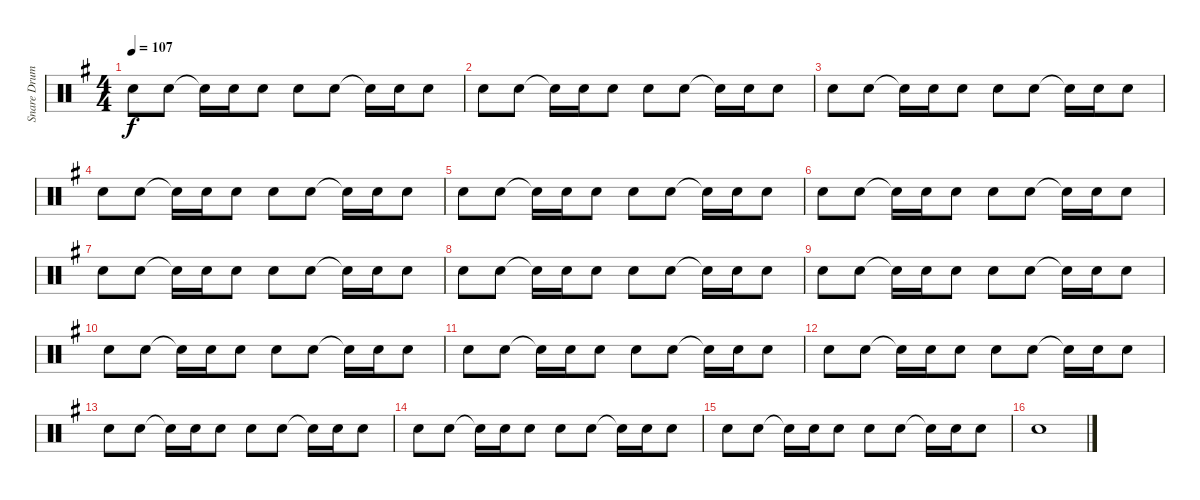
\track ("Snare Drum" "Snare Drum") {instrument percussion}
\staff {score}
\articulation defaults
\ts (4 4)
\tempo 107
\clef neutral
\ks g "Snare (hit) 2".8{dy f} "Snare (hit) 2".8 "Snare (hit) 2"{t}.16 "Snare (hit) 2".16 "Snare (hit) 2".8 "Snare (hit) 2".8 "Snare (hit) 2".8 "Snare (hit) 2"{t}.16 "Snare (hit) 2".16 "Snare (hit) 2".8
|
"Snare (hit) 2".8 "Snare (hit) 2".8 "Snare (hit) 2"{t}.16 "Snare (hit) 2".16 "Snare (hit) 2".8 "Snare (hit) 2".8 "Snare (hit) 2".8 "Snare (hit) 2"{t}.16 "Snare (hit) 2".16 "Snare (hit) 2".8 |
"Snare (hit) 2".8 "Snare (hit) 2".8 "Snare (hit) 2"{t}.16 "Snare (hit) 2".16 "Snare (hit) 2".8 "Snare (hit) 2".8 "Snare (hit) 2".8 "Snare (hit) 2"{t}.16 "Snare (hit) 2".16 "Snare (hit) 2".8 |
"Snare (hit) 2".8 "Snare (hit) 2".8 "Snare (hit) 2"{t}.16 "Snare (hit) 2".16 "Snare (hit) 2".8 "Snare (hit) 2".8 "Snare (hit) 2".8 "Snare (hit) 2"{t}.16 "Snare (hit) 2".16 "Snare (hit) 2".8 |
"Snare (hit) 2".8 "Snare (hit) 2".8 "Snare (hit) 2"{t}.16 "Snare (hit) 2".16 "Snare (hit) 2".8 "Snare (hit) 2".8 "Snare (hit) 2".8 "Snare (hit) 2"{t}.16 "Snare (hit) 2".16 "Snare (hit) 2".8 |
"Snare (hit) 2".8 "Snare (hit) 2".8 "Snare (hit) 2"{t}.16 "Snare (hit) 2".16 "Snare (hit) 2".8 "Snare (hit) 2".8 "Snare (hit) 2".8 "Snare (hit) 2"{t}.16 "Snare (hit) 2".16 "Snare (hit) 2".8 |
"Snare (hit) 2".8 "Snare (hit) 2".8 "Snare (hit) 2"{t}.16 "Snare (hit) 2".16 "Snare (hit) 2".8 "Snare (hit) 2".8 "Snare (hit) 2".8 "Snare (hit) 2"{t}.16 "Snare (hit) 2".16 "Snare (hit) 2".8 |
"Snare (hit) 2".8 "Snare (hit) 2".8 "Snare (hit) 2"{t}.16 "Snare (hit) 2".16 "Snare (hit) 2".8 "Snare (hit) 2".8 "Snare (hit) 2".8 "Snare (hit) 2"{t}.16 "Snare (hit) 2".16 "Snare (hit) 2".8 |
"Snare (hit) 2".8 "Snare (hit) 2".8 "Snare (hit) 2"{t}.16 "Snare (hit) 2".16 "Snare (hit) 2".8 "Snare (hit) 2".8 "Snare (hit) 2".8 "Snare (hit) 2"{t}.16 "Snare (hit) 2".16 "Snare (hit) 2".8 |
"Snare (hit) 2".8 "Snare (hit) 2".8 "Snare (hit) 2"{t}.16 "Snare (hit) 2".16 "Snare (hit) 2".8 "Snare (hit) 2".8 "Snare (hit) 2".8 "Snare (hit) 2"{t}.16 "Snare (hit) 2".16 "Snare (hit) 2".8 |
"Snare (hit) 2".8 "Snare (hit) 2".8 "Snare (hit) 2"{t}.16 "Snare (hit) 2".16 "Snare (hit) 2".8 "Snare (hit) 2".8 "Snare (hit) 2".8 "Snare (hit) 2"{t}.16 "Snare (hit) 2".16 "Snare (hit) 2".8 |
"Snare (hit) 2".8 "Snare (hit) 2".8 "Snare (hit) 2"{t}.16 "Snare (hit) 2".16 "Snare (hit) 2".8 "Snare (hit) 2".8 "Snare (hit) 2".8 "Snare (hit) 2"{t}.16 "Snare (hit) 2".16 "Snare (hit) 2".8 |
"Snare (hit) 2".8 "Snare (hit) 2".8 "Snare (hit) 2"{t}.16 "Snare (hit) 2".16 "Snare (hit) 2".8 "Snare (hit) 2".8 "Snare (hit) 2".8 "Snare (hit) 2"{t}.16 "Snare (hit) 2".16 "Snare (hit) 2".8 |
"Snare (hit) 2".8 "Snare (hit) 2".8 "Snare (hit) 2"{t}.16 "Snare (hit) 2".16 "Snare (hit) 2".8 "Snare (hit) 2".8 "Snare (hit) 2".8 "Snare (hit) 2"{t}.16 "Snare (hit) 2".16 "Snare (hit) 2".8 |
"Snare (hit) 2".8 "Snare (hit) 2".8 "Snare (hit) 2"{t}.16 "Snare (hit) 2".16 "Snare (hit) 2".8 "Snare (hit) 2".8 "Snare (hit) 2".8 "Snare (hit) 2"{t}.16 "Snare (hit) 2".16 "Snare (hit) 2".8 |
"Snare (hit) 2".1
